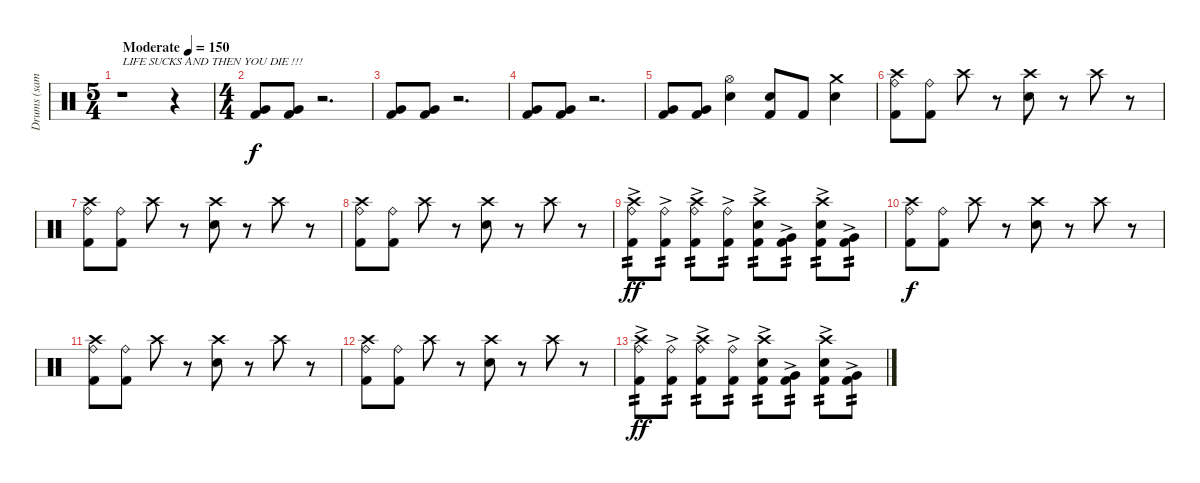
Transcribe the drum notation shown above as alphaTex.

\track ("Drums (sample)" "Drums (sam") {instrument percussion}
\staff {score}
\articulation defaults
\ts (5 4)
\tempo (150 "Moderate")
\clef neutral
\ks c
r.1{txt "LIFE SUCKS AND THEN YOU DIE !!!" dy f} r.4 |
\ts (4 4)
("Very Low Tom (hit)" "Kick (hit) 2").8 ("Very Low Tom (hit)" "Kick (hit) 2").8 r.2{d} |
("Very Low Tom (hit)" "Kick (hit) 2").8 ("Very Low Tom (hit)" "Kick (hit) 2").8 r.2{d} |
("Very Low Tom (hit)" "Kick (hit) 2").8 ("Very Low Tom (hit)" "Kick (hit) 2").8 r.2{d} |
("Very Low Tom (hit)" "Kick (hit) 2").8 ("Very Low Tom (hit)" "Kick (hit) 2").8 ("Hi-Hat (open)" "Snare (hit) 2").4 ("Snare (hit) 2" "Kick (hit) 2").8 "Kick (hit) 2".8 ("Crash medium (hit)" "Snare (hit) 2").4 |
("Ride (bell)" "Crash high (hit)" "Kick (hit) 2").8 ("Ride (bell)" "Kick (hit) 2").8 "Crash high (hit)".8 r.8 ("Crash high (hit)" "Snare (hit) 2").8 r.8 "Crash high (hit)".8 r.8 |
("Ride (bell)" "Crash high (hit)" "Kick (hit) 2").8 ("Ride (bell)" "Kick (hit) 2").8 "Crash high (hit)".8 r.8 ("Crash high (hit)" "Snare (hit) 2").8 r.8 "Crash high (hit)".8 r.8 |
("Ride (bell)" "Crash high (hit)" "Kick (hit) 2").8 ("Ride (bell)" "Kick (hit) 2").8 "Crash high (hit)".8 r.8 ("Crash high (hit)" "Snare (hit) 2").8 r.8 "Crash high (hit)".8 r.8 |
("Ride (bell)" "Crash high (hit)" "Kick (hit) 2"{ac}).8{tp 2 dy ff} ("Ride (bell)" "Kick (hit) 2"{ac}).8{tp 2} ("Ride (bell)" "Crash high (hit)" "Kick (hit) 2"{ac}).8{tp 2} ("Ride (bell)" "Kick (hit) 2"{ac}).8{tp 2} ("Kick (hit) 2"{ac} "Crash high (hit)" "Snare (hit) 2").8{tp 2} ("Very Low Tom (hit)" "Kick (hit) 2"{ac}).8{tp 2} ("Snare (hit) 2" "Crash high (hit)" "Kick (hit) 2"{ac}).8{tp 2} ("Very Low Tom (hit)" "Kick (hit) 2"{ac}).8{tp 2} |
("Ride (bell)" "Crash high (hit)" "Kick (hit) 2").8{dy f} ("Ride (bell)" "Kick (hit) 2").8 "Crash high (hit)".8 r.8 ("Crash high (hit)" "Snare (hit) 2").8 r.8 "Crash high (hit)".8 r.8 |
("Ride (bell)" "Crash high (hit)" "Kick (hit) 2").8 ("Ride (bell)" "Kick (hit) 2").8 "Crash high (hit)".8 r.8 ("Crash high (hit)" "Snare (hit) 2").8 r.8 "Crash high (hit)".8 r.8 |
("Ride (bell)" "Crash high (hit)" "Kick (hit) 2").8 ("Ride (bell)" "Kick (hit) 2").8 "Crash high (hit)".8 r.8 ("Crash high (hit)" "Snare (hit) 2").8 r.8 "Crash high (hit)".8 r.8 |
("Ride (bell)" "Crash high (hit)" "Kick (hit) 2"{ac}).8{tp 2 dy ff} ("Ride (bell)" "Kick (hit) 2"{ac}).8{tp 2} ("Ride (bell)" "Crash high (hit)" "Kick (hit) 2"{ac}).8{tp 2} ("Ride (bell)" "Kick (hit) 2"{ac}).8{tp 2} ("Kick (hit) 2"{ac} "Crash high (hit)" "Snare (hit) 2").8{tp 2} ("Very Low Tom (hit)" "Kick (hit) 2"{ac}).8{tp 2} ("Snare (hit) 2" "Crash high (hit)" "Kick (hit) 2"{ac}).8{tp 2} ("Very Low Tom (hit)" "Kick (hit) 2"{ac}).8{tp 2}
